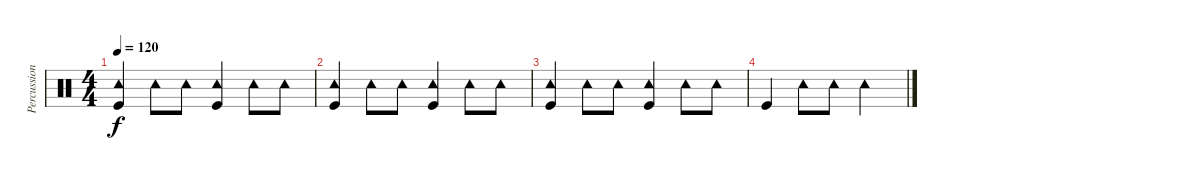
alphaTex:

\track ("Percussion" "Percussion") {instrument percussion}
\staff {score}
\articulation defaults
\ts (4 4)
\tempo 120
\clef neutral
\ks c
("Tambourine (hit)" "Kick (hit)").4{dy f} "Tambourine (hit)".8 "Tambourine (hit)".8 ("Tambourine (hit)" "Kick (hit)").4 "Tambourine (hit)".8 "Tambourine (hit)".8 |
("Tambourine (hit)" "Kick (hit)").4 "Tambourine (hit)".8 "Tambourine (hit)".8 ("Tambourine (hit)" "Kick (hit)").4 "Tambourine (hit)".8 "Tambourine (hit)".8 |
("Tambourine (hit)" "Kick (hit)").4 "Tambourine (hit)".8 "Tambourine (hit)".8 ("Tambourine (hit)" "Kick (hit)").4 "Tambourine (hit)".8 "Tambourine (hit)".8 |
"Kick (hit)".4 "Tambourine (hit)".8 "Tambourine (hit)".8 "Tambourine (hit)".2
